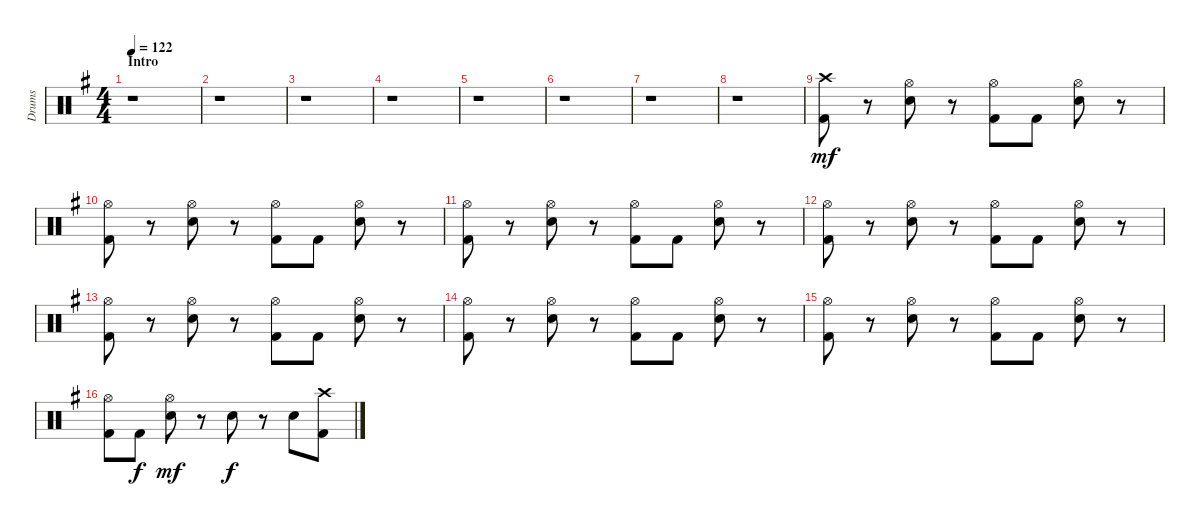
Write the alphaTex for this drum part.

\track ("Drums" "Drums") {instrument percussion}
\staff {score}
\articulation defaults
\ts (4 4)
\section ("" "Intro")
\tempo 122
\clef neutral
\ks g
r.1{dy mf} |
r.1 |
r.1 |
r.1 |
r.1 |
r.1 |
r.1 |
r.1 |
("Crash high (hit)" "Kick (hit) 2").8 r.8 ("Hi-Hat (open)" "Electric Snare (hit)").8 r.8 ("Hi-Hat (open)" "Kick (hit) 2").8 "Kick (hit) 2".8 ("Hi-Hat (open)" "Electric Snare (hit)").8 r.8 |
("Hi-Hat (open)" "Kick (hit) 2").8 r.8 ("Hi-Hat (open)" "Electric Snare (hit)").8 r.8 ("Hi-Hat (open)" "Kick (hit) 2").8 "Kick (hit) 2".8 ("Hi-Hat (open)" "Electric Snare (hit)").8 r.8 |
("Hi-Hat (open)" "Kick (hit) 2").8 r.8 ("Hi-Hat (open)" "Electric Snare (hit)").8 r.8 ("Hi-Hat (open)" "Kick (hit) 2").8 "Kick (hit) 2".8 ("Hi-Hat (open)" "Electric Snare (hit)").8 r.8 |
("Hi-Hat (open)" "Kick (hit) 2").8 r.8 ("Hi-Hat (open)" "Electric Snare (hit)").8 r.8 ("Hi-Hat (open)" "Kick (hit) 2").8 "Kick (hit) 2".8 ("Hi-Hat (open)" "Electric Snare (hit)").8 r.8 |
("Hi-Hat (open)" "Kick (hit) 2").8 r.8 ("Hi-Hat (open)" "Electric Snare (hit)").8 r.8 ("Hi-Hat (open)" "Kick (hit) 2").8 "Kick (hit) 2".8 ("Hi-Hat (open)" "Electric Snare (hit)").8 r.8 |
("Hi-Hat (open)" "Kick (hit) 2").8 r.8 ("Hi-Hat (open)" "Electric Snare (hit)").8 r.8 ("Hi-Hat (open)" "Kick (hit) 2").8 "Kick (hit) 2".8 ("Hi-Hat (open)" "Electric Snare (hit)").8 r.8 |
("Hi-Hat (open)" "Kick (hit) 2").8 r.8 ("Hi-Hat (open)" "Electric Snare (hit)").8 r.8 ("Hi-Hat (open)" "Kick (hit) 2").8 "Kick (hit) 2".8 ("Hi-Hat (open)" "Electric Snare (hit)").8 r.8 |
("Hi-Hat (open)" "Kick (hit) 2").8 "Kick (hit) 2".8{dy f} ("Hi-Hat (open)" "Electric Snare (hit)").8{dy mf} r.8 "Electric Snare (hit)".8{dy f} r.8 "Electric Snare (hit)".8 ("Crash high (hit)" "Kick (hit) 2").8
